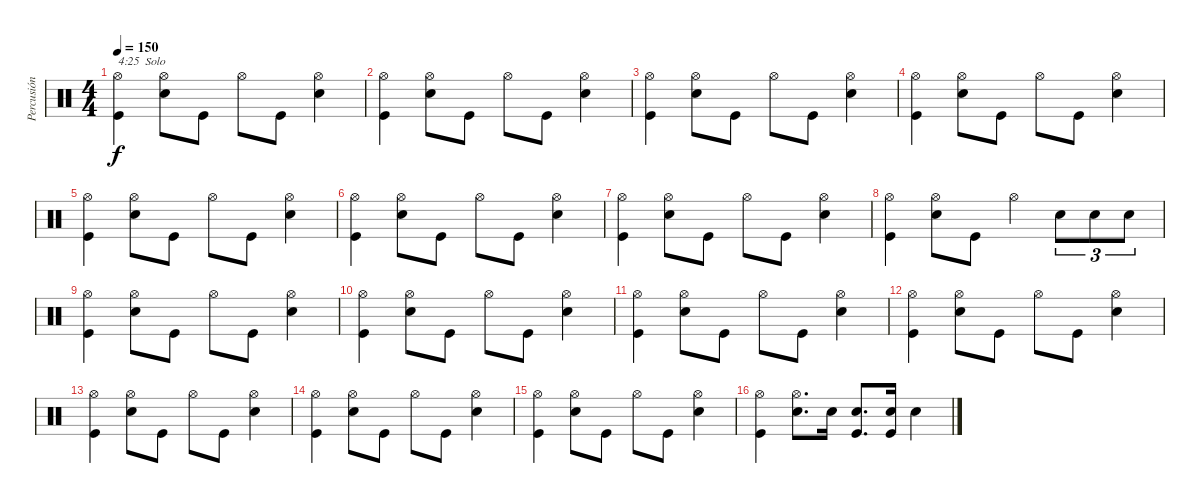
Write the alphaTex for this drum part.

\track ("Percusión" "Percusión") {instrument percussion}
\staff {score}
\articulation defaults
\ts (4 4)
\tempo 150
\clef neutral
\ks c
("Kick (hit)" "Hi-Hat (open)").4{txt "4:25  Solo" dy f} ("Snare (hit) 2" "Hi-Hat (open)").8 "Kick (hit)".8 "Hi-Hat (open)".8 "Kick (hit)".8 ("Snare (hit) 2" "Hi-Hat (open)").4 |
("Kick (hit)" "Hi-Hat (open)").4 ("Snare (hit) 2" "Hi-Hat (open)").8 "Kick (hit)".8 "Hi-Hat (open)".8 "Kick (hit)".8 ("Snare (hit) 2" "Hi-Hat (open)").4 |
("Kick (hit)" "Hi-Hat (open)").4 ("Snare (hit) 2" "Hi-Hat (open)").8 "Kick (hit)".8 "Hi-Hat (open)".8 "Kick (hit)".8 ("Snare (hit) 2" "Hi-Hat (open)").4 |
("Kick (hit)" "Hi-Hat (open)").4 ("Snare (hit) 2" "Hi-Hat (open)").8 "Kick (hit)".8 "Hi-Hat (open)".8 "Kick (hit)".8 ("Snare (hit) 2" "Hi-Hat (open)").4 |
("Kick (hit)" "Hi-Hat (open)").4 ("Snare (hit) 2" "Hi-Hat (open)").8 "Kick (hit)".8 "Hi-Hat (open)".8 "Kick (hit)".8 ("Snare (hit) 2" "Hi-Hat (open)").4 |
("Kick (hit)" "Hi-Hat (open)").4 ("Snare (hit) 2" "Hi-Hat (open)").8 "Kick (hit)".8 "Hi-Hat (open)".8 "Kick (hit)".8 ("Snare (hit) 2" "Hi-Hat (open)").4 |
("Kick (hit)" "Hi-Hat (open)").4 ("Snare (hit) 2" "Hi-Hat (open)").8 "Kick (hit)".8 "Hi-Hat (open)".8 "Kick (hit)".8 ("Snare (hit) 2" "Hi-Hat (open)").4 |
("Kick (hit)" "Hi-Hat (open)").4 ("Snare (hit) 2" "Hi-Hat (open)").8 "Kick (hit)".8 "Hi-Hat (open)".4 "Snare (hit) 2".8{tu (3 2)} "Snare (hit) 2".8{tu (3 2)} "Snare (hit) 2".8{tu (3 2)} |
("Kick (hit)" "Hi-Hat (open)").4 ("Snare (hit) 2" "Hi-Hat (open)").8 "Kick (hit)".8 "Hi-Hat (open)".8 "Kick (hit)".8 ("Snare (hit) 2" "Hi-Hat (open)").4 |
("Kick (hit)" "Hi-Hat (open)").4 ("Snare (hit) 2" "Hi-Hat (open)").8 "Kick (hit)".8 "Hi-Hat (open)".8 "Kick (hit)".8 ("Snare (hit) 2" "Hi-Hat (open)").4 |
("Kick (hit)" "Hi-Hat (open)").4 ("Snare (hit) 2" "Hi-Hat (open)").8 "Kick (hit)".8 "Hi-Hat (open)".8 "Kick (hit)".8 ("Snare (hit) 2" "Hi-Hat (open)").4 |
("Kick (hit)" "Hi-Hat (open)").4 ("Snare (hit) 2" "Hi-Hat (open)").8 "Kick (hit)".8 "Hi-Hat (open)".8 "Kick (hit)".8 ("Snare (hit) 2" "Hi-Hat (open)").4 |
("Kick (hit)" "Hi-Hat (open)").4 ("Snare (hit) 2" "Hi-Hat (open)").8 "Kick (hit)".8 "Hi-Hat (open)".8 "Kick (hit)".8 ("Snare (hit) 2" "Hi-Hat (open)").4 |
("Kick (hit)" "Hi-Hat (open)").4 ("Snare (hit) 2" "Hi-Hat (open)").8 "Kick (hit)".8 "Hi-Hat (open)".8 "Kick (hit)".8 ("Snare (hit) 2" "Hi-Hat (open)").4 |
("Kick (hit)" "Hi-Hat (open)").4 ("Snare (hit) 2" "Hi-Hat (open)").8 "Kick (hit)".8 "Hi-Hat (open)".8 "Kick (hit)".8 ("Snare (hit) 2" "Hi-Hat (open)").4 |
("Kick (hit)" "Hi-Hat (open)").4 ("Snare (hit) 2" "Hi-Hat (open)").8{d} "Snare (hit) 2".16 ("Kick (hit)" "Snare (hit) 2").8{d} ("Kick (hit)" "Snare (hit) 2").16 "Snare (hit) 2".4
